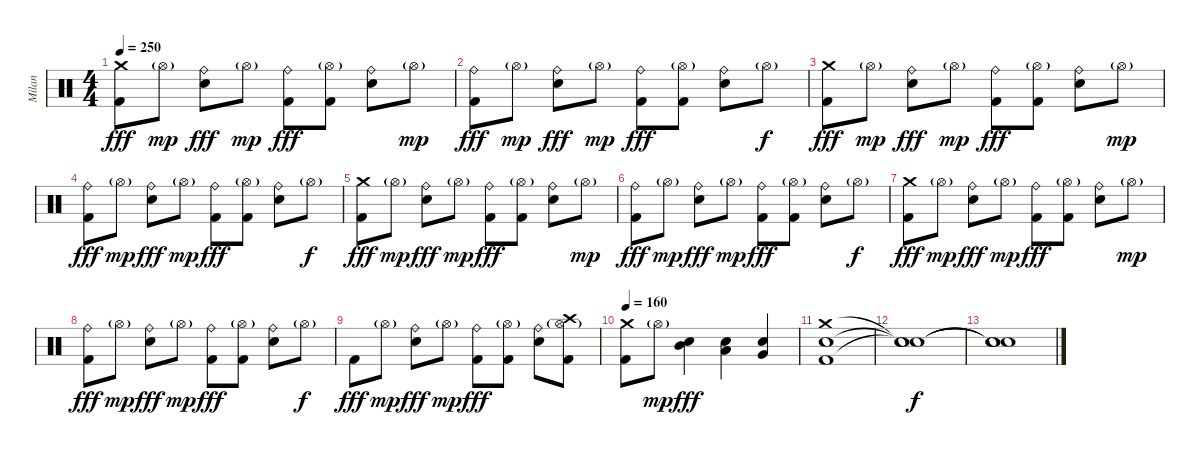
\track ("Milan" "Milan") {instrument percussion}
\staff {score}
\articulation defaults
\ts (4 4)
\tempo 250
\clef neutral
\ks c
("Crash medium (hit)" "Kick (hit) 2").8{dy fff} "Hi-Hat (open)"{g}.8{dy mp} ("Ride (bell)" "Snare (hit) 2").8{dy fff} "Hi-Hat (open)"{g}.8{dy mp} ("Ride (bell)" "Kick (hit) 2").8{dy fff} ("Hi-Hat (open)"{g} "Kick (hit) 2").8 ("Ride (bell)" "Snare (hit) 2").8 "Hi-Hat (open)"{g}.8{dy mp} |
("Ride (bell)" "Kick (hit) 2").8{dy fff} "Hi-Hat (open)"{g}.8{dy mp} ("Ride (bell)" "Snare (hit) 2").8{dy fff} "Hi-Hat (open)"{g}.8{dy mp} ("Ride (bell)" "Kick (hit) 2").8{dy fff} ("Hi-Hat (open)"{g} "Kick (hit) 2").8 ("Ride (bell)" "Snare (hit) 2").8 "Hi-Hat (open)"{g}.8{dy f} |
("Crash medium (hit)" "Kick (hit) 2").8{dy fff} "Hi-Hat (open)"{g}.8{dy mp} ("Ride (bell)" "Snare (hit) 2").8{dy fff} "Hi-Hat (open)"{g}.8{dy mp} ("Ride (bell)" "Kick (hit) 2").8{dy fff} ("Hi-Hat (open)"{g} "Kick (hit) 2").8 ("Ride (bell)" "Snare (hit) 2").8 "Hi-Hat (open)"{g}.8{dy mp} |
("Ride (bell)" "Kick (hit) 2").8{dy fff} "Hi-Hat (open)"{g}.8{dy mp} ("Ride (bell)" "Snare (hit) 2").8{dy fff} "Hi-Hat (open)"{g}.8{dy mp} ("Ride (bell)" "Kick (hit) 2").8{dy fff} ("Hi-Hat (open)"{g} "Kick (hit) 2").8 ("Ride (bell)" "Snare (hit) 2").8 "Hi-Hat (open)"{g}.8{dy f} |
("Crash medium (hit)" "Kick (hit) 2").8{dy fff} "Hi-Hat (open)"{g}.8{dy mp} ("Ride (bell)" "Snare (hit) 2").8{dy fff} "Hi-Hat (open)"{g}.8{dy mp} ("Ride (bell)" "Kick (hit) 2").8{dy fff} ("Hi-Hat (open)"{g} "Kick (hit) 2").8 ("Ride (bell)" "Snare (hit) 2").8 "Hi-Hat (open)"{g}.8{dy mp} |
("Ride (bell)" "Kick (hit) 2").8{dy fff} "Hi-Hat (open)"{g}.8{dy mp} ("Ride (bell)" "Snare (hit) 2").8{dy fff} "Hi-Hat (open)"{g}.8{dy mp} ("Ride (bell)" "Kick (hit) 2").8{dy fff} ("Hi-Hat (open)"{g} "Kick (hit) 2").8 ("Ride (bell)" "Snare (hit) 2").8 "Hi-Hat (open)"{g}.8{dy f} |
("Crash medium (hit)" "Kick (hit) 2").8{dy fff} "Hi-Hat (open)"{g}.8{dy mp} ("Ride (bell)" "Snare (hit) 2").8{dy fff} "Hi-Hat (open)"{g}.8{dy mp} ("Ride (bell)" "Kick (hit) 2").8{dy fff} ("Hi-Hat (open)"{g} "Kick (hit) 2").8 ("Ride (bell)" "Snare (hit) 2").8 "Hi-Hat (open)"{g}.8{dy mp} |
("Ride (bell)" "Kick (hit) 2").8{dy fff} "Hi-Hat (open)"{g}.8{dy mp} ("Ride (bell)" "Snare (hit) 2").8{dy fff} "Hi-Hat (open)"{g}.8{dy mp} ("Ride (bell)" "Kick (hit) 2").8{dy fff} ("Hi-Hat (open)"{g} "Kick (hit) 2").8 ("Ride (bell)" "Snare (hit) 2").8 "Hi-Hat (open)"{g}.8{dy f} |
"Kick (hit) 2".8{dy fff} "Hi-Hat (open)"{g}.8{dy mp} ("Ride (bell)" "Snare (hit) 2").8{dy fff} "Hi-Hat (open)"{g}.8{dy mp} ("Ride (bell)" "Kick (hit) 2").8{dy fff} ("Hi-Hat (open)"{g} "Kick (hit) 2").8 ("Ride (bell)" "Snare (hit) 2").8 ("Crash high (hit)" "Hi-Hat (open)"{g} "Kick (hit) 2").8 |
\tempo 160
("Crash medium (hit)" "Kick (hit) 2").8 "Hi-Hat (open)"{g}.8{dy mp} ("Snare (hit) 2" "Mid Tom (hit)").4{dy fff} ("Snare (hit) 2" "Low Tom (hit)").4 ("Snare (hit) 2" "Very Low Tom (hit)").4 |
("Crash medium (hit)" "Snare (hit) 2" "Kick (hit) 2").1 |
("Snare (hit)"{t} "Snare (hit)"{t} "Snare (hit)"{t}).1{dy f} |
("Snare (hit)"{t} "Snare (hit)"{t} "Snare (hit)"{t}).1
